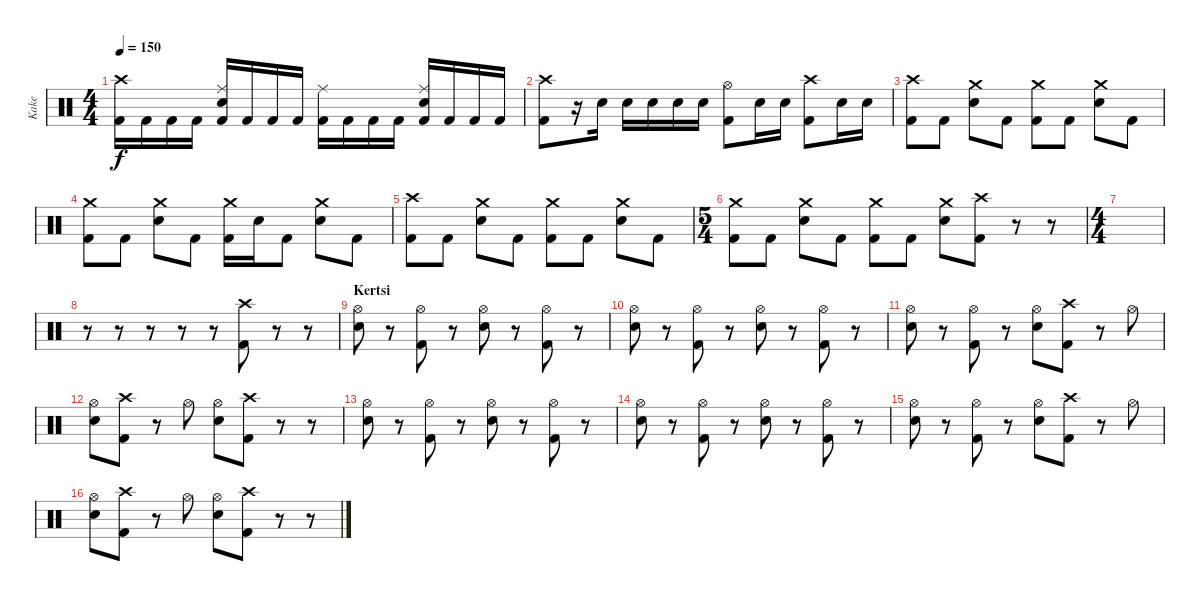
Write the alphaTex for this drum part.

\track ("Kake" "Kake") {instrument percussion}
\staff {score}
\articulation defaults
\ts (4 4)
\tempo 150
\clef neutral
\ks c
("Crash high (hit)" "Kick (hit) 2").16{dy f} "Kick (hit) 2".16 "Kick (hit) 2".16 "Kick (hit) 2".16 ("Ride (middle)" "Electric Snare (hit)" "Kick (hit) 2").16 "Kick (hit) 2".16 "Kick (hit) 2".16 "Kick (hit) 2".16 ("Ride (middle)" "Kick (hit) 2").16 "Kick (hit) 2".16 "Kick (hit) 2".16 "Kick (hit) 2".16 ("Ride (middle)" "Electric Snare (hit)" "Kick (hit) 2").16 "Kick (hit) 2".16 "Kick (hit) 2".16 "Kick (hit) 2".16 |
("Crash high (hit)" "Kick (hit) 2").8 r.16 "Electric Snare (hit)".16 "Electric Snare (hit)".16 "Electric Snare (hit)".16 "Electric Snare (hit)".16 "Electric Snare (hit)".16 ("Hi-Hat (open)" "Kick (hit) 2").8 "Electric Snare (hit)".16 "Electric Snare (hit)".16 ("Crash high (hit)" "Kick (hit) 2").8 "Electric Snare (hit)".16 "Electric Snare (hit)".16 |
("Crash high (hit)" "Kick (hit) 2").8 "Kick (hit) 2".8 ("Crash medium (hit)" "Electric Snare (hit)").8 "Kick (hit) 2".8 ("Crash medium (hit)" "Kick (hit) 2").8 "Kick (hit) 2".8 ("Crash medium (hit)" "Electric Snare (hit)").8 "Kick (hit) 2".8 |
("Crash medium (hit)" "Kick (hit) 2").8 "Kick (hit) 2".8 ("Crash medium (hit)" "Electric Snare (hit)").8 "Kick (hit) 2".8 ("Crash medium (hit)" "Kick (hit) 2").16 "Electric Snare (hit)".16 "Kick (hit) 2".8 ("Crash medium (hit)" "Electric Snare (hit)").8 "Kick (hit) 2".8 |
("Crash high (hit)" "Kick (hit) 2").8 "Kick (hit) 2".8 ("Crash medium (hit)" "Electric Snare (hit)").8 "Kick (hit) 2".8 ("Crash medium (hit)" "Kick (hit) 2").8 "Kick (hit) 2".8 ("Crash medium (hit)" "Electric Snare (hit)").8 "Kick (hit) 2".8 |
\ts (5 4)
("Crash medium (hit)" "Kick (hit) 2").8 "Kick (hit) 2".8 ("Crash medium (hit)" "Electric Snare (hit)").8 "Kick (hit) 2".8 ("Crash medium (hit)" "Kick (hit) 2").8 "Kick (hit) 2".8 ("Crash medium (hit)" "Electric Snare (hit)").8 ("Crash high (hit)" "Kick (hit) 2").8 r.8 r.8 |
\ts (4 4)
|
r.8 r.8 r.8 r.8 r.8 ("Crash high (hit)" "Kick (hit) 2").8 r.8 r.8 |
\section ("" "Kertsi")
("Hi-Hat (open)" "Electric Snare (hit)").8 r.8 ("Hi-Hat (open)" "Kick (hit) 2").8 r.8 ("Hi-Hat (open)" "Electric Snare (hit)").8 r.8 ("Hi-Hat (open)" "Kick (hit) 2").8 r.8 |
("Hi-Hat (open)" "Electric Snare (hit)").8 r.8 ("Hi-Hat (open)" "Kick (hit) 2").8 r.8 ("Hi-Hat (open)" "Electric Snare (hit)").8 r.8 ("Hi-Hat (open)" "Kick (hit) 2").8 r.8 |
("Hi-Hat (open)" "Electric Snare (hit)").8 r.8 ("Hi-Hat (open)" "Kick (hit) 2").8 r.8 ("Hi-Hat (open)" "Electric Snare (hit)").8 ("Crash high (hit)" "Kick (hit) 2").8 r.8 "Hi-Hat (open)".8 |
("Hi-Hat (open)" "Electric Snare (hit)").8 ("Crash high (hit)" "Kick (hit) 2").8 r.8 "Hi-Hat (open)".8 ("Hi-Hat (open)" "Electric Snare (hit)").8 ("Crash high (hit)" "Kick (hit) 2").8 r.8 r.8 |
("Hi-Hat (open)" "Electric Snare (hit)").8 r.8 ("Hi-Hat (open)" "Kick (hit) 2").8 r.8 ("Hi-Hat (open)" "Electric Snare (hit)").8 r.8 ("Hi-Hat (open)" "Kick (hit) 2").8 r.8 |
("Hi-Hat (open)" "Electric Snare (hit)").8 r.8 ("Hi-Hat (open)" "Kick (hit) 2").8 r.8 ("Hi-Hat (open)" "Electric Snare (hit)").8 r.8 ("Hi-Hat (open)" "Kick (hit) 2").8 r.8 |
("Hi-Hat (open)" "Electric Snare (hit)").8 r.8 ("Hi-Hat (open)" "Kick (hit) 2").8 r.8 ("Hi-Hat (open)" "Electric Snare (hit)").8 ("Crash high (hit)" "Kick (hit) 2").8 r.8 "Hi-Hat (open)".8 |
("Hi-Hat (open)" "Electric Snare (hit)").8 ("Crash high (hit)" "Kick (hit) 2").8 r.8 "Hi-Hat (open)".8 ("Hi-Hat (open)" "Electric Snare (hit)").8 ("Crash high (hit)" "Kick (hit) 2").8 r.8 r.8
